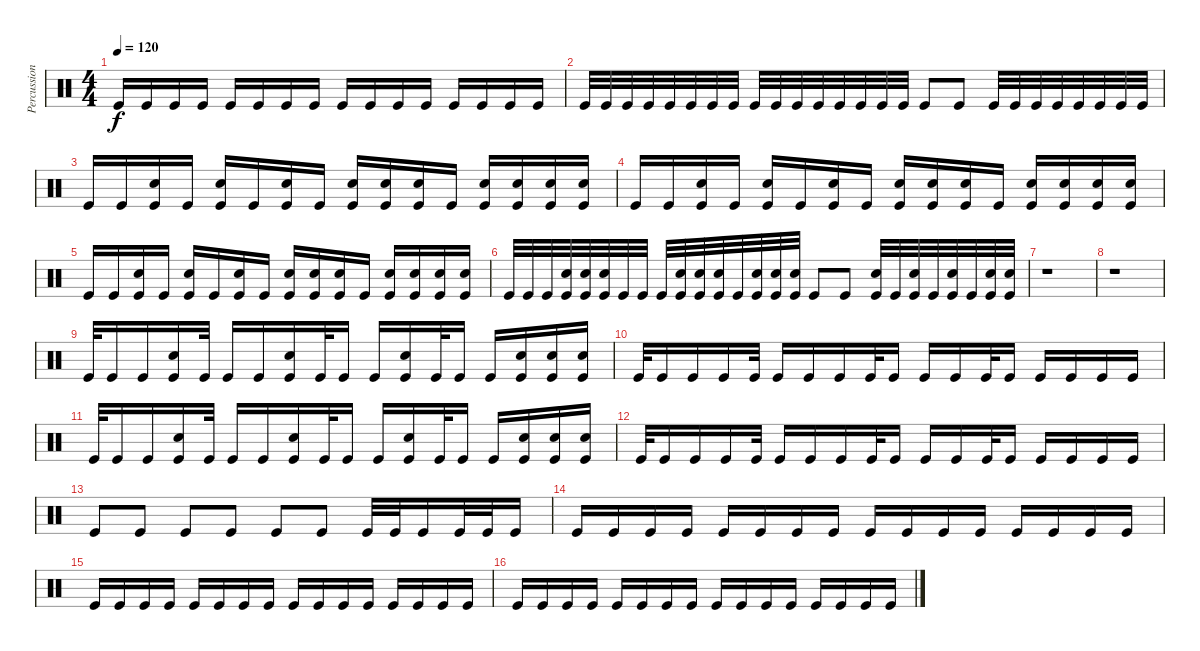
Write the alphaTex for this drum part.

\track ("Percussion" "Percussion") {instrument percussion}
\staff {score}
\articulation defaults
\ts (4 4)
\tempo 120
\clef neutral
\ks c "Kick (hit)".16{dy f} "Kick (hit)".16 "Kick (hit)".16 "Kick (hit)".16 "Kick (hit)".16 "Kick (hit)".16 "Kick (hit)".16 "Kick (hit)".16 "Kick (hit)".16 "Kick (hit)".16 "Kick (hit)".16 "Kick (hit)".16 "Kick (hit)".16 "Kick (hit)".16 "Kick (hit)".16 "Kick (hit)".16
|
"Kick (hit)".32 "Kick (hit)".32 "Kick (hit)".32 "Kick (hit)".32 "Kick (hit)".32 "Kick (hit)".32 "Kick (hit)".32 "Kick (hit)".32 "Kick (hit)".32 "Kick (hit)".32 "Kick (hit)".32 "Kick (hit)".32 "Kick (hit)".32 "Kick (hit)".32 "Kick (hit)".32 "Kick (hit)".32 "Kick (hit)".8 "Kick (hit)".8 "Kick (hit)".32 "Kick (hit)".32 "Kick (hit)".32 "Kick (hit)".32 "Kick (hit)".32 "Kick (hit)".32 "Kick (hit)".32 "Kick (hit)".32 |
"Kick (hit)".16 "Kick (hit)".16 ("Snare (hit) 2" "Kick (hit)").16 "Kick (hit)".16 ("Snare (hit) 2" "Kick (hit)").16 "Kick (hit)".16 ("Snare (hit) 2" "Kick (hit)").16 "Kick (hit)".16 ("Snare (hit) 2" "Kick (hit)").16 ("Snare (hit) 2" "Kick (hit)").16 ("Snare (hit) 2" "Kick (hit)").16 "Kick (hit)".16 ("Snare (hit) 2" "Kick (hit)").16 ("Snare (hit) 2" "Kick (hit)").16 ("Snare (hit) 2" "Kick (hit)").16 ("Snare (hit) 2" "Kick (hit)").16 |
"Kick (hit)".16 "Kick (hit)".16 ("Snare (hit) 2" "Kick (hit)").16 "Kick (hit)".16 ("Snare (hit) 2" "Kick (hit)").16 "Kick (hit)".16 ("Snare (hit) 2" "Kick (hit)").16 "Kick (hit)".16 ("Snare (hit) 2" "Kick (hit)").16 ("Snare (hit) 2" "Kick (hit)").16 ("Snare (hit) 2" "Kick (hit)").16 "Kick (hit)".16 ("Snare (hit) 2" "Kick (hit)").16 ("Snare (hit) 2" "Kick (hit)").16 ("Snare (hit) 2" "Kick (hit)").16 ("Snare (hit) 2" "Kick (hit)").16 |
"Kick (hit)".16 "Kick (hit)".16 ("Snare (hit) 2" "Kick (hit)").16 "Kick (hit)".16 ("Snare (hit) 2" "Kick (hit)").16 "Kick (hit)".16 ("Snare (hit) 2" "Kick (hit)").16 "Kick (hit)".16 ("Snare (hit) 2" "Kick (hit)").16 ("Snare (hit) 2" "Kick (hit)").16 ("Snare (hit) 2" "Kick (hit)").16 "Kick (hit)".16 ("Snare (hit) 2" "Kick (hit)").16 ("Snare (hit) 2" "Kick (hit)").16 ("Snare (hit) 2" "Kick (hit)").16 ("Snare (hit) 2" "Kick (hit)").16 |
"Kick (hit)".32 "Kick (hit)".32 "Kick (hit)".32 ("Snare (hit) 2" "Kick (hit)").32 ("Snare (hit) 2" "Kick (hit)").32 ("Snare (hit) 2" "Kick (hit)").32 "Kick (hit)".32 "Kick (hit)".32 "Kick (hit)".32 ("Snare (hit) 2" "Kick (hit)").32 ("Snare (hit) 2" "Kick (hit)").32 ("Snare (hit) 2" "Kick (hit)").32 "Kick (hit)".32 ("Snare (hit) 2" "Kick (hit)").32 ("Snare (hit) 2" "Kick (hit)").32 ("Snare (hit) 2" "Kick (hit)").32 "Kick (hit)".8 "Kick (hit)".8 ("Snare (hit) 2" "Kick (hit)").32 "Kick (hit)".32 ("Snare (hit) 2" "Kick (hit)").32 "Kick (hit)".32 ("Snare (hit) 2" "Kick (hit)").32 "Kick (hit)".32 ("Snare (hit) 2" "Kick (hit)").32 ("Snare (hit) 2" "Kick (hit)").32 |
r.1 |
r.1 |
"Kick (hit)".32 "Kick (hit)".16 "Kick (hit)".16 ("Snare (hit) 2" "Kick (hit)").16 "Kick (hit)".32 "Kick (hit)".16 "Kick (hit)".16 ("Snare (hit) 2" "Kick (hit)").16 "Kick (hit)".32 "Kick (hit)".16 "Kick (hit)".16 ("Snare (hit) 2" "Kick (hit)").16 "Kick (hit)".32 "Kick (hit)".16 "Kick (hit)".16 ("Snare (hit) 2" "Kick (hit)").16 ("Snare (hit) 2" "Kick (hit)").16 ("Snare (hit) 2" "Kick (hit)").16 |
"Kick (hit)".32 "Kick (hit)".16 "Kick (hit)".16 "Kick (hit)".16 "Kick (hit)".32 "Kick (hit)".16 "Kick (hit)".16 "Kick (hit)".16 "Kick (hit)".32 "Kick (hit)".16 "Kick (hit)".16 "Kick (hit)".16 "Kick (hit)".32 "Kick (hit)".16 "Kick (hit)".16 "Kick (hit)".16 "Kick (hit)".16 "Kick (hit)".16 |
"Kick (hit)".32 "Kick (hit)".16 "Kick (hit)".16 ("Snare (hit) 2" "Kick (hit)").16 "Kick (hit)".32 "Kick (hit)".16 "Kick (hit)".16 ("Snare (hit) 2" "Kick (hit)").16 "Kick (hit)".32 "Kick (hit)".16 "Kick (hit)".16 ("Snare (hit) 2" "Kick (hit)").16 "Kick (hit)".32 "Kick (hit)".16 "Kick (hit)".16 ("Snare (hit) 2" "Kick (hit)").16 ("Snare (hit) 2" "Kick (hit)").16 ("Snare (hit) 2" "Kick (hit)").16 |
"Kick (hit)".32 "Kick (hit)".16 "Kick (hit)".16 "Kick (hit)".16 "Kick (hit)".32 "Kick (hit)".16 "Kick (hit)".16 "Kick (hit)".16 "Kick (hit)".32 "Kick (hit)".16 "Kick (hit)".16 "Kick (hit)".16 "Kick (hit)".32 "Kick (hit)".16 "Kick (hit)".16 "Kick (hit)".16 "Kick (hit)".16 "Kick (hit)".16 |
"Kick (hit)".8 "Kick (hit)".8 "Kick (hit)".8 "Kick (hit)".8 "Kick (hit)".8 "Kick (hit)".8 "Kick (hit)".32 "Kick (hit)".32 "Kick (hit)".16 "Kick (hit)".32 "Kick (hit)".32 "Kick (hit)".16 |
"Kick (hit)".16 "Kick (hit)".16 "Kick (hit)".16 "Kick (hit)".16 "Kick (hit)".16 "Kick (hit)".16 "Kick (hit)".16 "Kick (hit)".16 "Kick (hit)".16 "Kick (hit)".16 "Kick (hit)".16 "Kick (hit)".16 "Kick (hit)".16 "Kick (hit)".16 "Kick (hit)".16 "Kick (hit)".16 |
"Kick (hit)".16 "Kick (hit)".16 "Kick (hit)".16 "Kick (hit)".16 "Kick (hit)".16 "Kick (hit)".16 "Kick (hit)".16 "Kick (hit)".16 "Kick (hit)".16 "Kick (hit)".16 "Kick (hit)".16 "Kick (hit)".16 "Kick (hit)".16 "Kick (hit)".16 "Kick (hit)".16 "Kick (hit)".16 |
"Kick (hit)".16 "Kick (hit)".16 "Kick (hit)".16 "Kick (hit)".16 "Kick (hit)".16 "Kick (hit)".16 "Kick (hit)".16 "Kick (hit)".16 "Kick (hit)".16 "Kick (hit)".16 "Kick (hit)".16 "Kick (hit)".16 "Kick (hit)".16 "Kick (hit)".16 "Kick (hit)".16 "Kick (hit)".16
